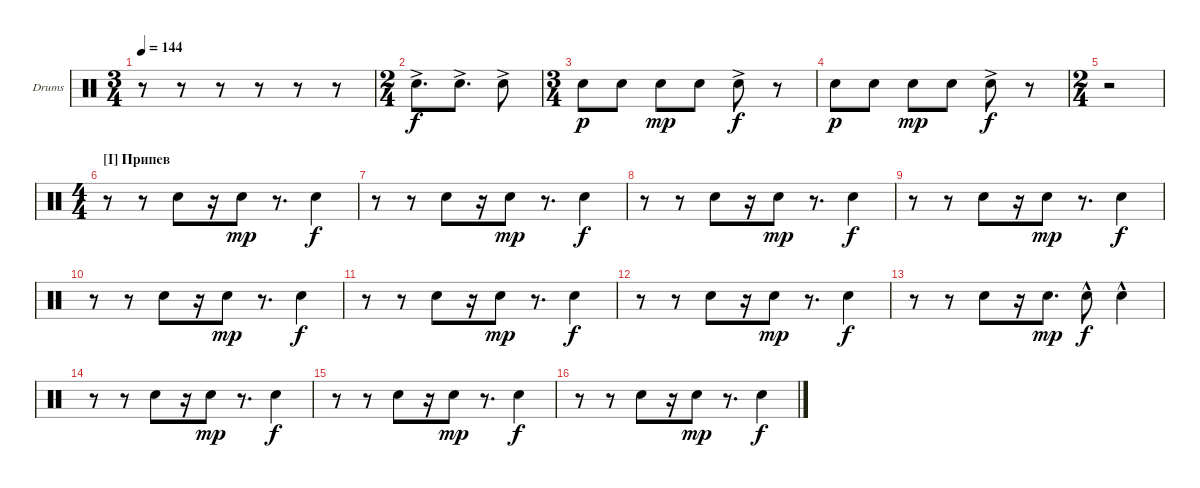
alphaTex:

\defaultSystemsLayout 4
\bracketExtendMode groupsimilarinstruments
\firstSystemTrackNameOrientation horizontal
\otherSystemsTrackNameOrientation horizontal
\track ("Snare" "Drums") {instrument percussion}
\staff {score}
\articulation defaults
\ts (3 4)
\tempo 144
\clef neutral
\ks c
r.8{dy mf} r.8 r.8 r.8 r.8 r.8 |
\ts (2 4)
"Snare (hit) 2"{ac}.8{d dy f} "Snare (hit) 2"{ac}.8{d} "Snare (hit) 2"{ac}.8 |
\ts (3 4)
"Snare (hit) 2".8{dy p} "Snare (hit) 2".8 "Snare (hit) 2".8{dy mp} "Snare (hit) 2".8 "Snare (hit) 2"{ac}.8{dy f} r.8 |
"Snare (hit) 2".8{dy p} "Snare (hit) 2".8 "Snare (hit) 2".8{dy mp} "Snare (hit) 2".8 "Snare (hit) 2"{ac}.8{dy f} r.8 |
\ts (2 4)
r.2 |
\ts (4 4)
\section ("I" "Припев ")
r.8 r.8 "Snare (hit) 2".8 r.16 "Snare (hit) 2".8{dy mp} r.8{d} "Snare (hit) 2".4{dy f} |
r.8 r.8 "Snare (hit) 2".8 r.16 "Snare (hit) 2".8{dy mp} r.8{d} "Snare (hit) 2".4{dy f} |
r.8 r.8 "Snare (hit) 2".8 r.16 "Snare (hit) 2".8{dy mp} r.8{d} "Snare (hit) 2".4{dy f} |
r.8 r.8 "Snare (hit) 2".8 r.16 "Snare (hit) 2".8{dy mp} r.8{d} "Snare (hit) 2".4{dy f} |
r.8 r.8 "Snare (hit) 2".8 r.16 "Snare (hit) 2".8{dy mp} r.8{d} "Snare (hit) 2".4{dy f} |
r.8 r.8 "Snare (hit) 2".8 r.16 "Snare (hit) 2".8{dy mp} r.8{d} "Snare (hit) 2".4{dy f} |
r.8 r.8 "Snare (hit) 2".8 r.16 "Snare (hit) 2".8{dy mp} r.8{d} "Snare (hit) 2".4{dy f} |
r.8 r.8 "Snare (hit) 2".8 r.16 "Snare (hit) 2".8{d dy mp} "Snare (hit) 2"{hac}.8{dy f} "Snare (hit) 2"{hac}.4 |
r.8 r.8 "Snare (hit) 2".8 r.16 "Snare (hit) 2".8{dy mp} r.8{d} "Snare (hit) 2".4{dy f} |
r.8 r.8 "Snare (hit) 2".8 r.16 "Snare (hit) 2".8{dy mp} r.8{d} "Snare (hit) 2".4{dy f} |
r.8 r.8 "Snare (hit) 2".8 r.16 "Snare (hit) 2".8{dy mp} r.8{d} "Snare (hit) 2".4{dy f}
